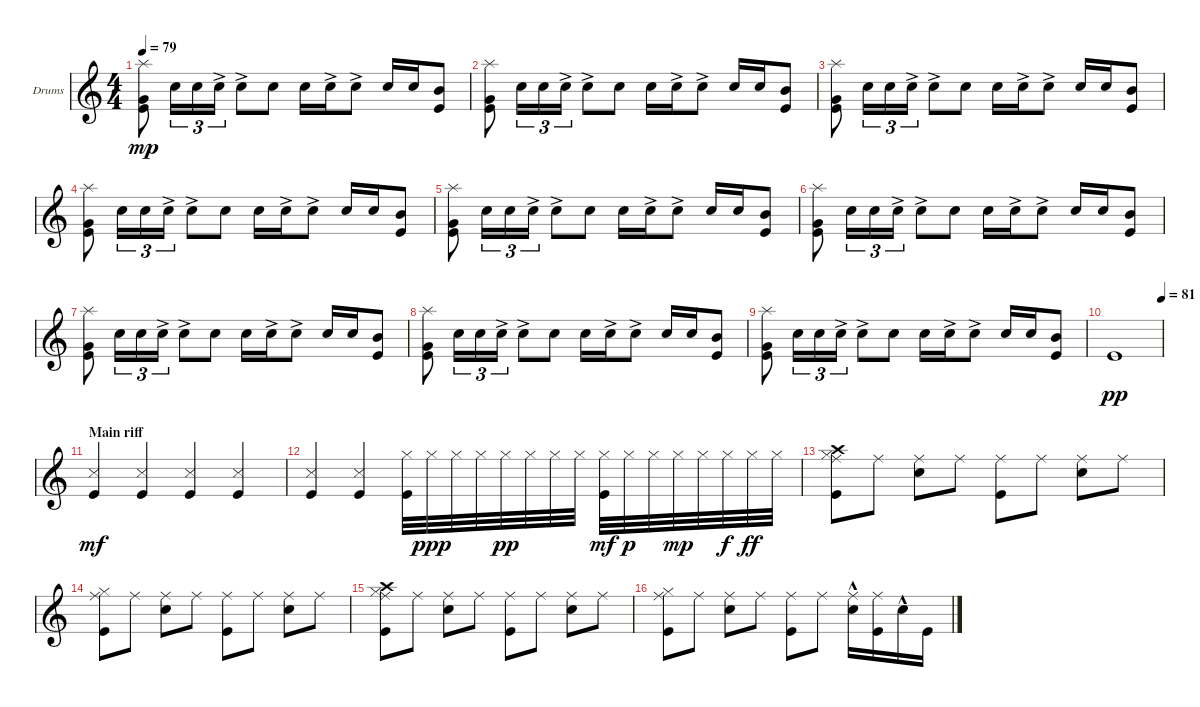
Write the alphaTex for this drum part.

\defaultSystemsLayout 4
\bracketExtendMode groupsimilarinstruments
\firstSystemTrackNameOrientation horizontal
\otherSystemsTrackNameOrientation horizontal
\track ("Dom" "Drums") {instrument percussion}
\staff {score}
\articulation defaults
\ts (4 4)
\tempo 79
\clef g2
\ks c
("Splash (hit)" "Kick (hit)" "Very Low Tom (hit)").8{dy mp} "Snare (hit) 2".16{tu (3 2)} "Snare (hit) 2".16{tu (3 2)} "Snare (hit) 2"{ac}.16{tu (3 2)} "Snare (hit) 2"{ac}.8 "Snare (hit) 2".8 "Snare (hit) 2".16 "Snare (hit) 2"{ac}.16 "Snare (hit) 2"{ac}.8 "Snare (hit) 2".16 "Snare (hit) 2".16 ("Kick (hit)" "Mid Tom (hit)").8 |
("Splash (hit)" "Kick (hit)" "Very Low Tom (hit)").8 "Snare (hit) 2".16{tu (3 2)} "Snare (hit) 2".16{tu (3 2)} "Snare (hit) 2"{ac}.16{tu (3 2)} "Snare (hit) 2"{ac}.8 "Snare (hit) 2".8 "Snare (hit) 2".16 "Snare (hit) 2"{ac}.16 "Snare (hit) 2"{ac}.8 "Snare (hit) 2".16 "Snare (hit) 2".16 ("Kick (hit)" "Mid Tom (hit)").8 |
("Splash (hit)" "Kick (hit)" "Very Low Tom (hit)").8 "Snare (hit) 2".16{tu (3 2)} "Snare (hit) 2".16{tu (3 2)} "Snare (hit) 2"{ac}.16{tu (3 2)} "Snare (hit) 2"{ac}.8 "Snare (hit) 2".8 "Snare (hit) 2".16 "Snare (hit) 2"{ac}.16 "Snare (hit) 2"{ac}.8 "Snare (hit) 2".16 "Snare (hit) 2".16 ("Kick (hit)" "Mid Tom (hit)").8 |
("Splash (hit)" "Kick (hit)" "Very Low Tom (hit)").8 "Snare (hit) 2".16{tu (3 2)} "Snare (hit) 2".16{tu (3 2)} "Snare (hit) 2"{ac}.16{tu (3 2)} "Snare (hit) 2"{ac}.8 "Snare (hit) 2".8 "Snare (hit) 2".16 "Snare (hit) 2"{ac}.16 "Snare (hit) 2"{ac}.8 "Snare (hit) 2".16 "Snare (hit) 2".16 ("Kick (hit)" "Mid Tom (hit)").8 |
("Splash (hit)" "Kick (hit)" "Very Low Tom (hit)").8 "Snare (hit) 2".16{tu (3 2)} "Snare (hit) 2".16{tu (3 2)} "Snare (hit) 2"{ac}.16{tu (3 2)} "Snare (hit) 2"{ac}.8 "Snare (hit) 2".8 "Snare (hit) 2".16 "Snare (hit) 2"{ac}.16 "Snare (hit) 2"{ac}.8 "Snare (hit) 2".16 "Snare (hit) 2".16 ("Kick (hit)" "Mid Tom (hit)").8 |
("Splash (hit)" "Kick (hit)" "Very Low Tom (hit)").8 "Snare (hit) 2".16{tu (3 2)} "Snare (hit) 2".16{tu (3 2)} "Snare (hit) 2"{ac}.16{tu (3 2)} "Snare (hit) 2"{ac}.8 "Snare (hit) 2".8 "Snare (hit) 2".16 "Snare (hit) 2"{ac}.16 "Snare (hit) 2"{ac}.8 "Snare (hit) 2".16 "Snare (hit) 2".16 ("Kick (hit)" "Mid Tom (hit)").8 |
("Splash (hit)" "Kick (hit)" "Very Low Tom (hit)").8 "Snare (hit) 2".16{tu (3 2)} "Snare (hit) 2".16{tu (3 2)} "Snare (hit) 2"{ac}.16{tu (3 2)} "Snare (hit) 2"{ac}.8 "Snare (hit) 2".8 "Snare (hit) 2".16 "Snare (hit) 2"{ac}.16 "Snare (hit) 2"{ac}.8 "Snare (hit) 2".16 "Snare (hit) 2".16 ("Kick (hit)" "Mid Tom (hit)").8 |
("Splash (hit)" "Kick (hit)" "Very Low Tom (hit)").8 "Snare (hit) 2".16{tu (3 2)} "Snare (hit) 2".16{tu (3 2)} "Snare (hit) 2"{ac}.16{tu (3 2)} "Snare (hit) 2"{ac}.8 "Snare (hit) 2".8 "Snare (hit) 2".16 "Snare (hit) 2"{ac}.16 "Snare (hit) 2"{ac}.8 "Snare (hit) 2".16 "Snare (hit) 2".16 ("Kick (hit)" "Mid Tom (hit)").8 |
("Splash (hit)" "Kick (hit)" "Very Low Tom (hit)").8 "Snare (hit) 2".16{tu (3 2)} "Snare (hit) 2".16{tu (3 2)} "Snare (hit) 2"{ac}.16{tu (3 2)} "Snare (hit) 2"{ac}.8 "Snare (hit) 2".8 "Snare (hit) 2".16 "Snare (hit) 2"{ac}.16 "Snare (hit) 2"{ac}.8 "Snare (hit) 2".16 "Snare (hit) 2".16 ("Kick (hit)" "Mid Tom (hit)").8 |
\tempo (81 1)
"Kick (hit)".1{dy pp} |
\section ("" "Main riff")
("Kick (hit)" "Snare (side stick) 3").4{dy mf} ("Kick (hit)" "Snare (side stick) 3").4 ("Kick (hit)" "Snare (side stick) 3").4 ("Kick (hit)" "Snare (side stick) 3").4 |
("Kick (hit)" "Snare (side stick) 3").4 ("Kick (hit)" "Snare (side stick) 3").4 ("Kick (hit)" "Hi-Hat (closed)").32 "Hi-Hat (closed)".32{dy ppp} "Hi-Hat (closed)".32 "Hi-Hat (closed)".32 "Hi-Hat (closed)".32{dy pp} "Hi-Hat (closed)".32 "Hi-Hat (closed)".32 "Hi-Hat (closed)".32 ("Kick (hit)" "Hi-Hat (closed)").32{dy mf} "Hi-Hat (closed)".32{dy p} "Hi-Hat (closed)".32 "Hi-Hat (closed)".32{dy mp} "Hi-Hat (closed)".32 "Hi-Hat (closed)".32{dy f} "Hi-Hat (closed)".32{dy ff} "Hi-Hat (closed)".32 |
("Ride (middle)" "Kick (hit)" "Hi-Hat (closed)" "Crash high (hit)").8 "Ride (middle)".8 ("Ride (middle)" "Snare (hit) 2").8 "Ride (middle)".8 ("Ride (middle)" "Kick (hit)").8 "Ride (middle)".8 ("Ride (middle)" "Snare (hit) 2").8 "Ride (middle)".8 |
("Ride (middle)" "Kick (hit)" "Hi-Hat (closed)").8 "Ride (middle)".8 ("Ride (middle)" "Snare (hit) 2").8 "Ride (middle)".8 ("Ride (middle)" "Kick (hit)").8 "Ride (middle)".8 ("Ride (middle)" "Snare (hit) 2").8 "Ride (middle)".8 |
\section ("" "")
("Ride (middle)" "Kick (hit)" "Hi-Hat (closed)" "Crash high (hit)").8 "Ride (middle)".8 ("Ride (middle)" "Snare (hit) 2").8 "Ride (middle)".8 ("Ride (middle)" "Kick (hit)").8 "Ride (middle)".8 ("Ride (middle)" "Snare (hit) 2").8 "Ride (middle)".8 |
("Ride (middle)" "Kick (hit)" "Hi-Hat (closed)").8 "Ride (middle)".8 ("Ride (middle)" "Snare (hit) 2").8 "Ride (middle)".8 ("Ride (middle)" "Kick (hit)").8 "Ride (middle)".8 ("Ride (middle)" "Snare (hit) 2"{hac}).16 ("Ride (middle)" "Kick (hit)").16 "Snare (hit) 2"{hac}.16 "Kick (hit)".16
